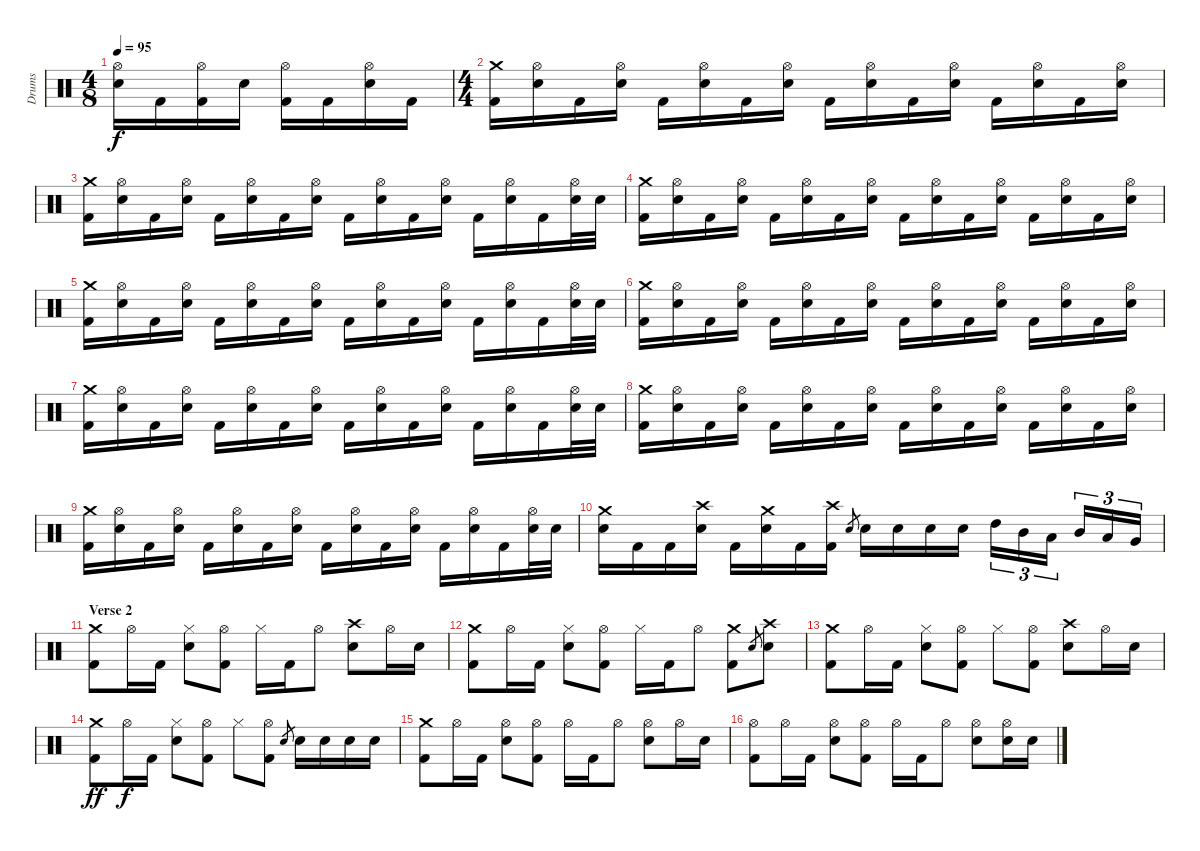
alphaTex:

\track ("Drums" "Drums") {instrument percussion}
\staff {score}
\articulation defaults
\ts (4 8)
\tempo 95
\clef neutral
\ks c
("Hi-Hat (open)" "Snare (hit) 2").16{dy f} "Kick (hit) 2".16 ("Hi-Hat (open)" "Kick (hit) 2").16 "Snare (hit) 2".16 ("Hi-Hat (open)" "Kick (hit) 2").16 "Kick (hit) 2".16 ("Hi-Hat (open)" "Snare (hit) 2").16 "Kick (hit) 2".16 |
\ts (4 4)
("Crash medium (hit)" "Kick (hit) 2").16 ("Hi-Hat (open)" "Snare (hit) 2").16 "Kick (hit) 2".16 ("Hi-Hat (open)" "Snare (hit) 2").16 "Kick (hit) 2".16 ("Hi-Hat (open)" "Snare (hit) 2").16 "Kick (hit) 2".16 ("Hi-Hat (open)" "Snare (hit) 2").16 "Kick (hit) 2".16 ("Hi-Hat (open)" "Snare (hit) 2").16 "Kick (hit) 2".16 ("Hi-Hat (open)" "Snare (hit) 2").16 "Kick (hit) 2".16 ("Hi-Hat (open)" "Snare (hit) 2").16 "Kick (hit) 2".16 ("Hi-Hat (open)" "Snare (hit) 2").16 |
("Crash medium (hit)" "Kick (hit) 2").16 ("Hi-Hat (open)" "Snare (hit) 2").16 "Kick (hit) 2".16 ("Hi-Hat (open)" "Snare (hit) 2").16 "Kick (hit) 2".16 ("Hi-Hat (open)" "Snare (hit) 2").16 "Kick (hit) 2".16 ("Hi-Hat (open)" "Snare (hit) 2").16 "Kick (hit) 2".16 ("Hi-Hat (open)" "Snare (hit) 2").16 "Kick (hit) 2".16 ("Hi-Hat (open)" "Snare (hit) 2").16 "Kick (hit) 2".16 ("Hi-Hat (open)" "Snare (hit) 2").16 "Kick (hit) 2".16 ("Hi-Hat (open)" "Snare (hit) 2").32 "Snare (hit) 2".32 |
("Crash medium (hit)" "Kick (hit) 2").16 ("Hi-Hat (open)" "Snare (hit) 2").16 "Kick (hit) 2".16 ("Hi-Hat (open)" "Snare (hit) 2").16 "Kick (hit) 2".16 ("Hi-Hat (open)" "Snare (hit) 2").16 "Kick (hit) 2".16 ("Hi-Hat (open)" "Snare (hit) 2").16 "Kick (hit) 2".16 ("Hi-Hat (open)" "Snare (hit) 2").16 "Kick (hit) 2".16 ("Hi-Hat (open)" "Snare (hit) 2").16 "Kick (hit) 2".16 ("Hi-Hat (open)" "Snare (hit) 2").16 "Kick (hit) 2".16 ("Hi-Hat (open)" "Snare (hit) 2").16 |
("Crash medium (hit)" "Kick (hit) 2").16 ("Hi-Hat (open)" "Snare (hit) 2").16 "Kick (hit) 2".16 ("Hi-Hat (open)" "Snare (hit) 2").16 "Kick (hit) 2".16 ("Hi-Hat (open)" "Snare (hit) 2").16 "Kick (hit) 2".16 ("Hi-Hat (open)" "Snare (hit) 2").16 "Kick (hit) 2".16 ("Hi-Hat (open)" "Snare (hit) 2").16 "Kick (hit) 2".16 ("Hi-Hat (open)" "Snare (hit) 2").16 "Kick (hit) 2".16 ("Hi-Hat (open)" "Snare (hit) 2").16 "Kick (hit) 2".16 ("Hi-Hat (open)" "Snare (hit) 2").32 "Snare (hit) 2".32 |
("Crash medium (hit)" "Kick (hit) 2").16 ("Hi-Hat (open)" "Snare (hit) 2").16 "Kick (hit) 2".16 ("Hi-Hat (open)" "Snare (hit) 2").16 "Kick (hit) 2".16 ("Hi-Hat (open)" "Snare (hit) 2").16 "Kick (hit) 2".16 ("Hi-Hat (open)" "Snare (hit) 2").16 "Kick (hit) 2".16 ("Hi-Hat (open)" "Snare (hit) 2").16 "Kick (hit) 2".16 ("Hi-Hat (open)" "Snare (hit) 2").16 "Kick (hit) 2".16 ("Hi-Hat (open)" "Snare (hit) 2").16 "Kick (hit) 2".16 ("Hi-Hat (open)" "Snare (hit) 2").16 |
("Crash medium (hit)" "Kick (hit) 2").16 ("Hi-Hat (open)" "Snare (hit) 2").16 "Kick (hit) 2".16 ("Hi-Hat (open)" "Snare (hit) 2").16 "Kick (hit) 2".16 ("Hi-Hat (open)" "Snare (hit) 2").16 "Kick (hit) 2".16 ("Hi-Hat (open)" "Snare (hit) 2").16 "Kick (hit) 2".16 ("Hi-Hat (open)" "Snare (hit) 2").16 "Kick (hit) 2".16 ("Hi-Hat (open)" "Snare (hit) 2").16 "Kick (hit) 2".16 ("Hi-Hat (open)" "Snare (hit) 2").16 "Kick (hit) 2".16 ("Hi-Hat (open)" "Snare (hit) 2").32 "Snare (hit) 2".32 |
("Crash medium (hit)" "Kick (hit) 2").16 ("Hi-Hat (open)" "Snare (hit) 2").16 "Kick (hit) 2".16 ("Hi-Hat (open)" "Snare (hit) 2").16 "Kick (hit) 2".16 ("Hi-Hat (open)" "Snare (hit) 2").16 "Kick (hit) 2".16 ("Hi-Hat (open)" "Snare (hit) 2").16 "Kick (hit) 2".16 ("Hi-Hat (open)" "Snare (hit) 2").16 "Kick (hit) 2".16 ("Hi-Hat (open)" "Snare (hit) 2").16 "Kick (hit) 2".16 ("Hi-Hat (open)" "Snare (hit) 2").16 "Kick (hit) 2".16 ("Hi-Hat (open)" "Snare (hit) 2").16 |
("Crash medium (hit)" "Kick (hit) 2").16 ("Hi-Hat (open)" "Snare (hit) 2").16 "Kick (hit) 2".16 ("Hi-Hat (open)" "Snare (hit) 2").16 "Kick (hit) 2".16 ("Hi-Hat (open)" "Snare (hit) 2").16 "Kick (hit) 2".16 ("Hi-Hat (open)" "Snare (hit) 2").16 "Kick (hit) 2".16 ("Hi-Hat (open)" "Snare (hit) 2").16 "Kick (hit) 2".16 ("Hi-Hat (open)" "Snare (hit) 2").16 "Kick (hit) 2".16 ("Hi-Hat (open)" "Snare (hit) 2").16 "Kick (hit) 2".16 ("Hi-Hat (open)" "Snare (hit) 2").32 "Snare (hit) 2".32 |
("Crash medium (hit)" "Snare (hit) 2").16 "Kick (hit) 2".16 "Kick (hit) 2".16 ("Crash high (hit)" "Snare (hit) 2").16 "Kick (hit) 2".16 ("Crash medium (hit)" "Snare (hit) 2").16 "Kick (hit) 2".16 ("Crash high (hit)" "Kick (hit) 2").16 "Snare (hit) 2".8{gr} "Snare (hit) 2".16 "Snare (hit) 2".16 "Snare (hit) 2".16 "Snare (hit) 2".16 "High Tom (hit)".16{tu (3 2)} "Mid Tom (hit)".16{tu (3 2)} "Low Tom (hit)".16{tu (3 2)} "Mid Tom (hit)".16{tu (3 2)} "Low Tom (hit)".16{tu (3 2)} "Very Low Tom (hit)".16{tu (3 2)} |
\section ("" "Verse 2")
("Crash medium (hit)" "Kick (hit) 2").8 "Hi-Hat (open)".16 "Kick (hit) 2".16 ("Hi-Hat (closed)" "Snare (hit) 2").8 ("Hi-Hat (open)" "Kick (hit) 2").8 "Hi-Hat (closed)".16 "Kick (hit) 2".16 "Hi-Hat (open)".8 ("Crash high (hit)" "Snare (hit) 2").8 "Hi-Hat (open)".16 "Snare (hit) 2".16 |
("Crash medium (hit)" "Kick (hit) 2").8 "Hi-Hat (open)".16 "Kick (hit) 2".16 ("Hi-Hat (closed)" "Snare (hit) 2").8 ("Hi-Hat (open)" "Kick (hit) 2").8 "Hi-Hat (closed)".16 "Kick (hit) 2".16 "Hi-Hat (open)".8 ("Crash medium (hit)" "Kick (hit) 2").8 "Snare (hit) 2".8{gr} ("Crash high (hit)" "Snare (hit) 2").8 |
("Crash medium (hit)" "Kick (hit) 2").8 "Hi-Hat (open)".16 "Kick (hit) 2".16 ("Hi-Hat (closed)" "Snare (hit) 2").8 ("Hi-Hat (open)" "Kick (hit) 2").8 "Hi-Hat (closed)".8 ("Hi-Hat (open)" "Kick (hit) 2").8 ("Crash high (hit)" "Snare (hit) 2").8 "Hi-Hat (open)".16 "Snare (hit) 2".16 |
("Crash medium (hit)" "Kick (hit) 2").8{dy ff} "Hi-Hat (open)".16{dy f} "Kick (hit) 2".16 ("Hi-Hat (closed)" "Snare (hit) 2").8 ("Hi-Hat (open)" "Kick (hit) 2").8 "Hi-Hat (closed)".8 ("Hi-Hat (open)" "Kick (hit) 2").8 "Snare (hit) 2".8{gr} "Snare (hit) 2".16 "Snare (hit) 2".16 "Snare (hit) 2".16 "Snare (hit) 2".16 |
("Crash medium (hit)" "Kick (hit) 2").8 "Hi-Hat (open)".16 "Kick (hit) 2".16 ("Hi-Hat (open)" "Snare (hit) 2").8 ("Hi-Hat (open)" "Kick (hit) 2").8 "Hi-Hat (open)".16 "Kick (hit) 2".16 "Hi-Hat (open)".8 ("Hi-Hat (open)" "Snare (hit) 2").8 "Hi-Hat (open)".16 "Snare (hit) 2".16 |
("Hi-Hat (open)" "Kick (hit) 2").8 "Hi-Hat (open)".16 "Kick (hit) 2".16 ("Hi-Hat (open)" "Snare (hit) 2").8 ("Hi-Hat (open)" "Kick (hit) 2").8 "Hi-Hat (open)".16 "Kick (hit) 2".16 "Hi-Hat (open)".8 ("Hi-Hat (open)" "Snare (hit) 2").8 ("Hi-Hat (open)" "Snare (hit) 2").16 "Snare (hit) 2".16
